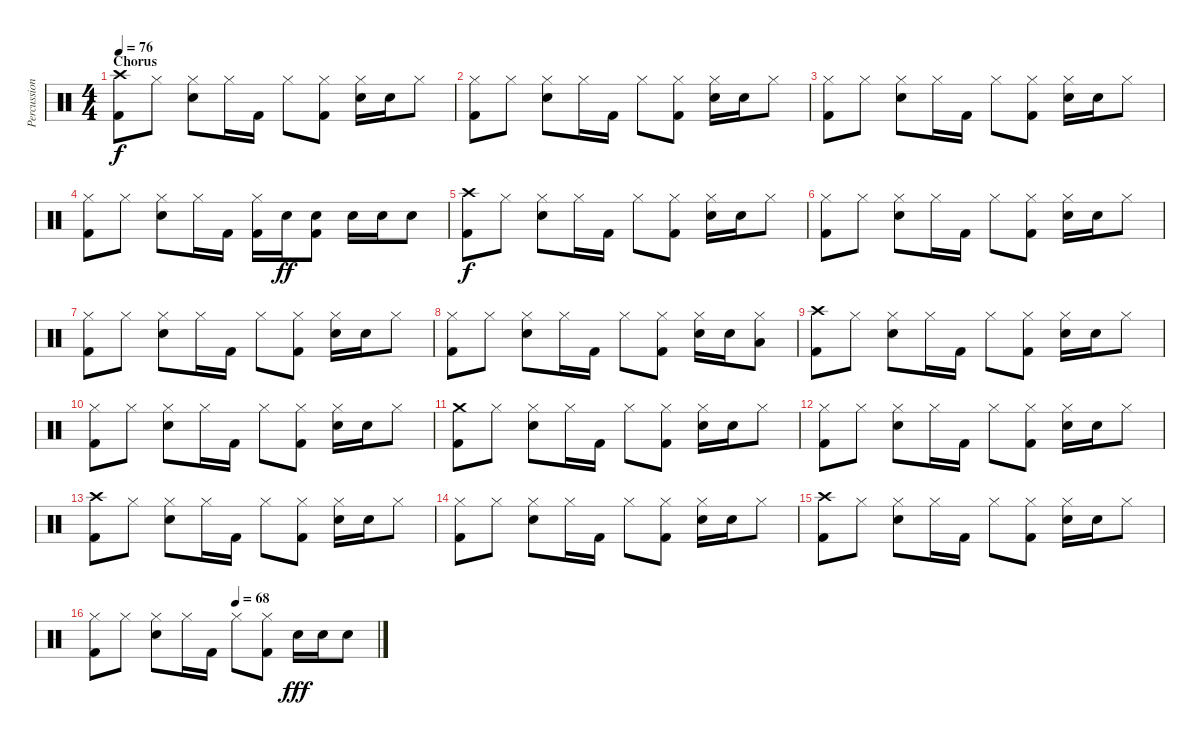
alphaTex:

\track ("Percussion" "Percussion") {instrument percussion}
\staff {score}
\articulation defaults
\ts (4 4)
\section ("" "Chorus")
\tempo 76
\clef neutral
\ks c
("Crash high (hit)" "Kick (hit) 2").8{dy f} "Hi-Hat (closed)".8 ("Hi-Hat (closed)" "Electric Snare (hit)").8 "Hi-Hat (closed)".16 "Kick (hit) 2".16 "Hi-Hat (closed)".8 ("Hi-Hat (closed)" "Kick (hit) 2").8 ("Hi-Hat (closed)" "Electric Snare (hit)").16 "Electric Snare (hit)".16 "Hi-Hat (closed)".8 |
("Hi-Hat (closed)" "Kick (hit) 2").8 "Hi-Hat (closed)".8 ("Hi-Hat (closed)" "Electric Snare (hit)").8 "Hi-Hat (closed)".16 "Kick (hit) 2".16 "Hi-Hat (closed)".8 ("Hi-Hat (closed)" "Kick (hit) 2").8 ("Hi-Hat (closed)" "Electric Snare (hit)").16 "Electric Snare (hit)".16 "Hi-Hat (closed)".8 |
("Hi-Hat (closed)" "Kick (hit) 2").8 "Hi-Hat (closed)".8 ("Hi-Hat (closed)" "Electric Snare (hit)").8 "Hi-Hat (closed)".16 "Kick (hit) 2".16 "Hi-Hat (closed)".8 ("Hi-Hat (closed)" "Kick (hit) 2").8 ("Hi-Hat (closed)" "Electric Snare (hit)").16 "Electric Snare (hit)".16 "Hi-Hat (closed)".8 |
("Hi-Hat (closed)" "Kick (hit) 2").8 "Hi-Hat (closed)".8 ("Hi-Hat (closed)" "Electric Snare (hit)").8 "Hi-Hat (closed)".16 "Kick (hit) 2".16 ("Hi-Hat (closed)" "Kick (hit) 2").16 "Electric Snare (hit)".16{dy ff} ("Electric Snare (hit)" "Kick (hit) 2").8 "Electric Snare (hit)".16 "Electric Snare (hit)".16 "Electric Snare (hit)".8 |
("Crash high (hit)" "Kick (hit) 2").8{dy f} "Hi-Hat (closed)".8 ("Hi-Hat (closed)" "Electric Snare (hit)").8 "Hi-Hat (closed)".16 "Kick (hit) 2".16 "Hi-Hat (closed)".8 ("Hi-Hat (closed)" "Kick (hit) 2").8 ("Hi-Hat (closed)" "Electric Snare (hit)").16 "Electric Snare (hit)".16 "Hi-Hat (closed)".8 |
("Hi-Hat (closed)" "Kick (hit) 2").8 "Hi-Hat (closed)".8 ("Hi-Hat (closed)" "Electric Snare (hit)").8 "Hi-Hat (closed)".16 "Kick (hit) 2".16 "Hi-Hat (closed)".8 ("Hi-Hat (closed)" "Kick (hit) 2").8 ("Hi-Hat (closed)" "Electric Snare (hit)").16 "Electric Snare (hit)".16 "Hi-Hat (closed)".8 |
("Hi-Hat (closed)" "Kick (hit) 2").8 "Hi-Hat (closed)".8 ("Hi-Hat (closed)" "Electric Snare (hit)").8 "Hi-Hat (closed)".16 "Kick (hit) 2".16 "Hi-Hat (closed)".8 ("Hi-Hat (closed)" "Kick (hit) 2").8 ("Hi-Hat (closed)" "Electric Snare (hit)").16 "Electric Snare (hit)".16 "Hi-Hat (closed)".8 |
("Hi-Hat (closed)" "Kick (hit) 2").8 "Hi-Hat (closed)".8 ("Hi-Hat (closed)" "Electric Snare (hit)").8 "Hi-Hat (closed)".16 "Kick (hit) 2".16 "Hi-Hat (closed)".8 ("Hi-Hat (closed)" "Kick (hit) 2").8 ("Hi-Hat (closed)" "Electric Snare (hit)").16 "Electric Snare (hit)".16 ("Hi-Hat (closed)" "Low Tom (hit)").8 |
("Crash high (hit)" "Kick (hit) 2").8 "Hi-Hat (closed)".8 ("Hi-Hat (closed)" "Electric Snare (hit)").8 "Hi-Hat (closed)".16 "Kick (hit) 2".16 "Hi-Hat (closed)".8 ("Hi-Hat (closed)" "Kick (hit) 2").8 ("Hi-Hat (closed)" "Electric Snare (hit)").16 "Electric Snare (hit)".16 "Hi-Hat (closed)".8 |
("Hi-Hat (closed)" "Kick (hit) 2").8 "Hi-Hat (closed)".8 ("Hi-Hat (closed)" "Electric Snare (hit)").8 "Hi-Hat (closed)".16 "Kick (hit) 2".16 "Hi-Hat (closed)".8 ("Hi-Hat (closed)" "Kick (hit) 2").8 ("Hi-Hat (closed)" "Electric Snare (hit)").16 "Electric Snare (hit)".16 "Hi-Hat (closed)".8 |
("Crash medium (hit)" "Kick (hit) 2").8 "Hi-Hat (closed)".8 ("Hi-Hat (closed)" "Electric Snare (hit)").8 "Hi-Hat (closed)".16 "Kick (hit) 2".16 "Hi-Hat (closed)".8 ("Hi-Hat (closed)" "Kick (hit) 2").8 ("Hi-Hat (closed)" "Electric Snare (hit)").16 "Electric Snare (hit)".16 "Hi-Hat (closed)".8 |
("Hi-Hat (closed)" "Kick (hit) 2").8 "Hi-Hat (closed)".8 ("Hi-Hat (closed)" "Electric Snare (hit)").8 "Hi-Hat (closed)".16 "Kick (hit) 2".16 "Hi-Hat (closed)".8 ("Hi-Hat (closed)" "Kick (hit) 2").8 ("Hi-Hat (closed)" "Electric Snare (hit)").16 "Electric Snare (hit)".16 "Hi-Hat (closed)".8 |
("Crash high (hit)" "Kick (hit) 2").8 "Hi-Hat (closed)".8 ("Hi-Hat (closed)" "Electric Snare (hit)").8 "Hi-Hat (closed)".16 "Kick (hit) 2".16 "Hi-Hat (closed)".8 ("Hi-Hat (closed)" "Kick (hit) 2").8 ("Hi-Hat (closed)" "Electric Snare (hit)").16 "Electric Snare (hit)".16 "Hi-Hat (closed)".8 |
("Hi-Hat (closed)" "Kick (hit) 2").8 "Hi-Hat (closed)".8 ("Hi-Hat (closed)" "Electric Snare (hit)").8 "Hi-Hat (closed)".16 "Kick (hit) 2".16 "Hi-Hat (closed)".8 ("Hi-Hat (closed)" "Kick (hit) 2").8 ("Hi-Hat (closed)" "Electric Snare (hit)").16 "Electric Snare (hit)".16 "Hi-Hat (closed)".8 |
("Crash high (hit)" "Kick (hit) 2").8 "Hi-Hat (closed)".8 ("Hi-Hat (closed)" "Electric Snare (hit)").8 "Hi-Hat (closed)".16 "Kick (hit) 2".16 "Hi-Hat (closed)".8 ("Hi-Hat (closed)" "Kick (hit) 2").8 ("Hi-Hat (closed)" "Electric Snare (hit)").16 "Electric Snare (hit)".16 "Hi-Hat (closed)".8 |
\tempo (68 0.5)
("Hi-Hat (closed)" "Kick (hit) 2").8 "Hi-Hat (closed)".8 ("Hi-Hat (closed)" "Electric Snare (hit)").8 "Hi-Hat (closed)".16 "Kick (hit) 2".16 "Hi-Hat (closed)".8 ("Hi-Hat (closed)" "Kick (hit) 2").8 "Electric Snare (hit)".16{dy fff} "Electric Snare (hit)".16 "Electric Snare (hit)".8
